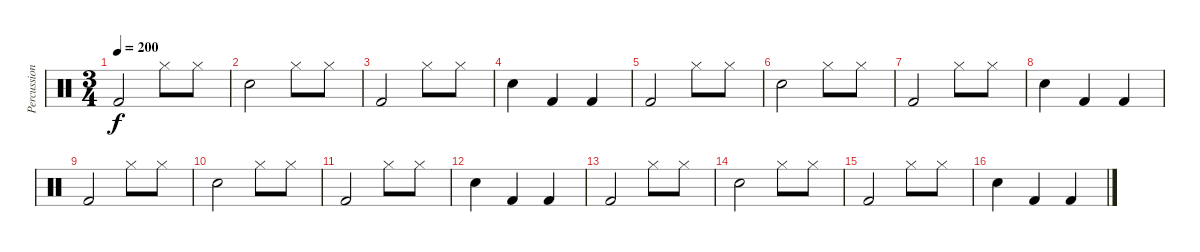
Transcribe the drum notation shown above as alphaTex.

\track ("Percussion" "Percussion") {instrument percussion}
\staff {score}
\articulation defaults
\ts (3 4)
\tempo 200
\clef neutral
\ks c "Kick (hit) 2".2{dy f} "Hi-Hat (closed)".8 "Hi-Hat (closed)".8
|
"Snare (hit) 2".2 "Hi-Hat (closed)".8 "Hi-Hat (closed)".8 |
"Kick (hit) 2".2 "Hi-Hat (closed)".8 "Hi-Hat (closed)".8 |
"Snare (hit) 2".4 "Kick (hit) 2".4 "Kick (hit) 2".4 |
"Kick (hit) 2".2 "Hi-Hat (closed)".8 "Hi-Hat (closed)".8 |
"Snare (hit) 2".2 "Hi-Hat (closed)".8 "Hi-Hat (closed)".8 |
"Kick (hit) 2".2 "Hi-Hat (closed)".8 "Hi-Hat (closed)".8 |
"Snare (hit) 2".4 "Kick (hit) 2".4 "Kick (hit) 2".4 |
"Kick (hit) 2".2 "Hi-Hat (closed)".8 "Hi-Hat (closed)".8 |
"Snare (hit) 2".2 "Hi-Hat (closed)".8 "Hi-Hat (closed)".8 |
"Kick (hit) 2".2 "Hi-Hat (closed)".8 "Hi-Hat (closed)".8 |
"Snare (hit) 2".4 "Kick (hit) 2".4 "Kick (hit) 2".4 |
"Kick (hit) 2".2 "Hi-Hat (closed)".8 "Hi-Hat (closed)".8 |
"Snare (hit) 2".2 "Hi-Hat (closed)".8 "Hi-Hat (closed)".8 |
"Kick (hit) 2".2 "Hi-Hat (closed)".8 "Hi-Hat (closed)".8 |
"Snare (hit) 2".4 "Kick (hit) 2".4 "Kick (hit) 2".4
